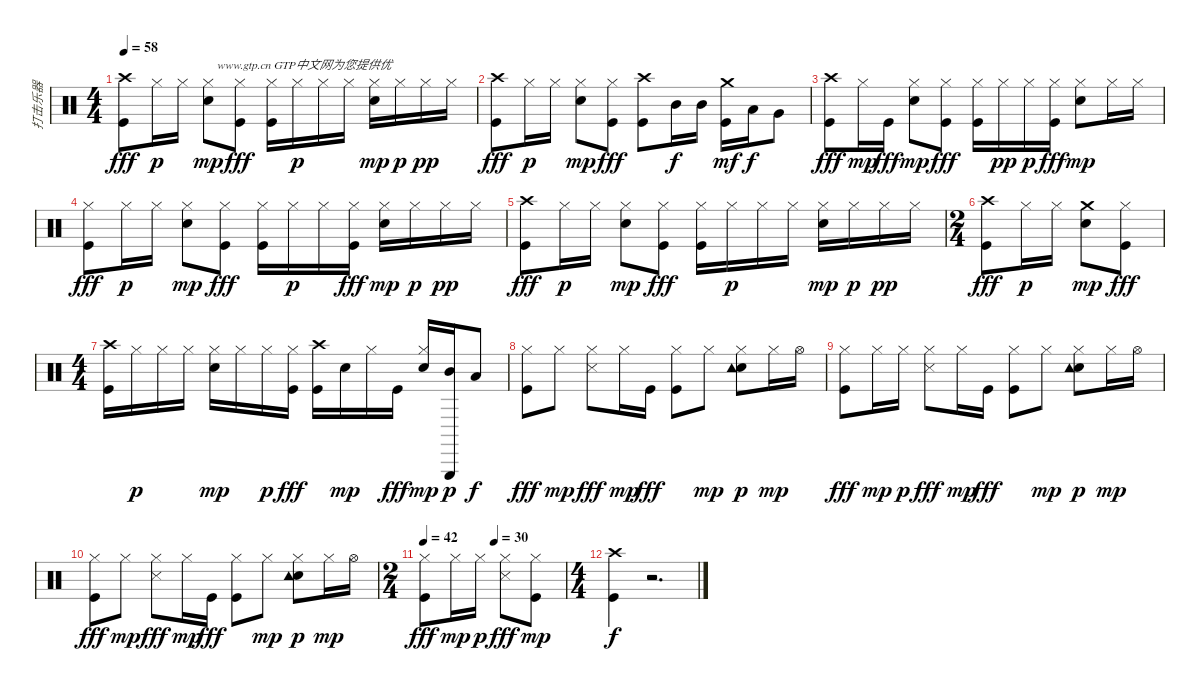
\track ("打击乐器" "打击乐器") {instrument percussion}
\staff {score}
\articulation defaults
\ts (4 4)
\tempo 58
\clef neutral
\ks c
("Crash high (hit)" "Kick (hit)").8{dy fff} "Hi-Hat (closed)".16{txt "                    www.gtp.cn GTP中文网为您提供优" dy p} "Hi-Hat (closed)".16 ("Hi-Hat (closed)" "Electric Snare (hit)").8{dy mp} ("Hi-Hat (closed)" "Kick (hit)").8{dy fff} ("Hi-Hat (closed)" "Kick (hit)").16 "Hi-Hat (closed)".16{dy p} "Hi-Hat (closed)".16 "Hi-Hat (closed)".16 ("Hi-Hat (closed)" "Electric Snare (hit)").16{dy mp} "Hi-Hat (closed)".16{dy p} "Hi-Hat (closed)".16{dy pp} "Hi-Hat (closed)".16 |
("Crash high (hit)" "Kick (hit)").8{dy fff} "Hi-Hat (closed)".16{dy p} "Hi-Hat (closed)".16 ("Hi-Hat (closed)" "Electric Snare (hit)").8{dy mp} ("Hi-Hat (closed)" "Kick (hit)").8{dy fff} ("Crash high (hit)" "Kick (hit)").8 "Mid Tom (hit)".16{dy f} "Mid Tom (hit)".16 ("Crash medium (hit)" "Kick (hit)").16{dy mf} "Low Tom (hit)".16{dy f} "Very Low Tom (hit)".8 |
("Crash high (hit)" "Kick (hit)").8{dy fff} "Hi-Hat (closed)".16{dy mp} "Kick (hit)".16{dy fff} ("Hi-Hat (closed)" "Electric Snare (hit)").8{dy mp} ("Hi-Hat (closed)" "Kick (hit)").8{dy fff} ("Hi-Hat (closed)" "Kick (hit)").16 "Hi-Hat (closed)".16{dy pp} "Hi-Hat (closed)".16{dy p} ("Hi-Hat (closed)" "Kick (hit)").16{dy fff} ("Hi-Hat (closed)" "Electric Snare (hit)").8{dy mp} "Hi-Hat (closed)".16 "Hi-Hat (closed)".16 |
("Hi-Hat (closed)" "Kick (hit)").8{dy fff} "Hi-Hat (closed)".16{dy p} "Hi-Hat (closed)".16 ("Hi-Hat (closed)" "Electric Snare (hit)").8{dy mp} ("Hi-Hat (closed)" "Kick (hit)").8{dy fff} ("Hi-Hat (closed)" "Kick (hit)").16 "Hi-Hat (closed)".16{dy p} "Hi-Hat (closed)".16 ("Hi-Hat (closed)" "Kick (hit)").16{dy fff} ("Hi-Hat (closed)" "Electric Snare (hit)").16{dy mp} "Hi-Hat (closed)".16{dy p} "Hi-Hat (closed)".16{dy pp} "Hi-Hat (closed)".16 |
("Crash high (hit)" "Kick (hit)").8{dy fff} "Hi-Hat (closed)".16{dy p} "Hi-Hat (closed)".16 ("Hi-Hat (closed)" "Electric Snare (hit)").8{dy mp} ("Hi-Hat (closed)" "Kick (hit)").8{dy fff} ("Hi-Hat (closed)" "Kick (hit)").16 "Hi-Hat (closed)".16{dy p} "Hi-Hat (closed)".16 "Hi-Hat (closed)".16 ("Hi-Hat (closed)" "Electric Snare (hit)").16{dy mp} "Hi-Hat (closed)".16{dy p} "Hi-Hat (closed)".16{dy pp} "Hi-Hat (closed)".16 |
\ts (2 4)
("Crash high (hit)" "Kick (hit)").8{dy fff} "Hi-Hat (closed)".16{dy p} "Hi-Hat (closed)".16 ("Crash medium (hit)" "Electric Snare (hit)").8{dy mp} ("Hi-Hat (closed)" "Kick (hit)").8{dy fff} |
\ts (4 4)
("Crash high (hit)" "Kick (hit)").16 "Hi-Hat (closed)".16{dy p} "Hi-Hat (closed)".16 "Hi-Hat (closed)".16 ("Hi-Hat (closed)" "Electric Snare (hit)").16{dy mp} "Hi-Hat (closed)".16 "Hi-Hat (closed)".16{dy p} ("Hi-Hat (closed)" "Kick (hit)").16{dy fff} ("Crash high (hit)" "Kick (hit)").16 "Electric Snare (hit)".16{dy mp} "Hi-Hat (closed)".16 "Kick (hit)".16{dy fff} ("Hi-Hat (closed)" "Electric Snare (hit)").16{dy mp} ("Mid Tom (hit)" "Triangle (hit)").16{dy p} "Low Tom (hit)".8{dy f} |
("Hi-Hat (closed)" "Kick (hit)").8{dy fff} "Hi-Hat (closed)".8{dy mp} ("Hi-Hat (closed)" "Snare (side stick) 3").8{dy fff} "Hi-Hat (closed)".16{dy mp} "Kick (hit)".16{dy fff} ("Hi-Hat (closed)" "Kick (hit)").8 "Hi-Hat (closed)".8{dy mp} ("Hi-Hat (closed)" "Hand Clap (hit)" "Tambourine (hit)").8{dy p} "Hi-Hat (closed)".16{dy mp} "Hi-Hat (open)".16 |
("Hi-Hat (closed)" "Kick (hit)").8{dy fff} "Hi-Hat (closed)".16{dy mp} "Hi-Hat (closed)".16{dy p} ("Hi-Hat (closed)" "Snare (side stick) 3").8{dy fff} "Hi-Hat (closed)".16{dy mp} "Kick (hit)".16{dy fff} ("Hi-Hat (closed)" "Kick (hit)").8 "Hi-Hat (closed)".8{dy mp} ("Hi-Hat (closed)" "Hand Clap (hit)" "Tambourine (hit)").8{dy p} "Hi-Hat (closed)".16{dy mp} "Hi-Hat (open)".16 |
("Hi-Hat (closed)" "Kick (hit)").8{dy fff} "Hi-Hat (closed)".8{dy mp} ("Hi-Hat (closed)" "Snare (side stick) 3").8{dy fff} "Hi-Hat (closed)".16{dy mp} "Kick (hit)".16{dy fff} ("Hi-Hat (closed)" "Kick (hit)").8 "Hi-Hat (closed)".8{dy mp} ("Hi-Hat (closed)" "Hand Clap (hit)" "Tambourine (hit)").8{dy p} "Hi-Hat (closed)".16{dy mp} "Hi-Hat (open)".16 |
\ts (2 4)
\tempo 42
\tempo (30 0.5)
("Hi-Hat (closed)" "Kick (hit)").8{dy fff} "Hi-Hat (closed)".16{dy mp} "Hi-Hat (closed)".16{dy p} ("Hi-Hat (closed)" "Snare (side stick) 3").8{dy fff} ("Hi-Hat (closed)" "Kick (hit)").8{dy mp} |
\ts (4 4)
("Crash high (hit)" "Kick (hit)").4{dy f} r.2{d}
